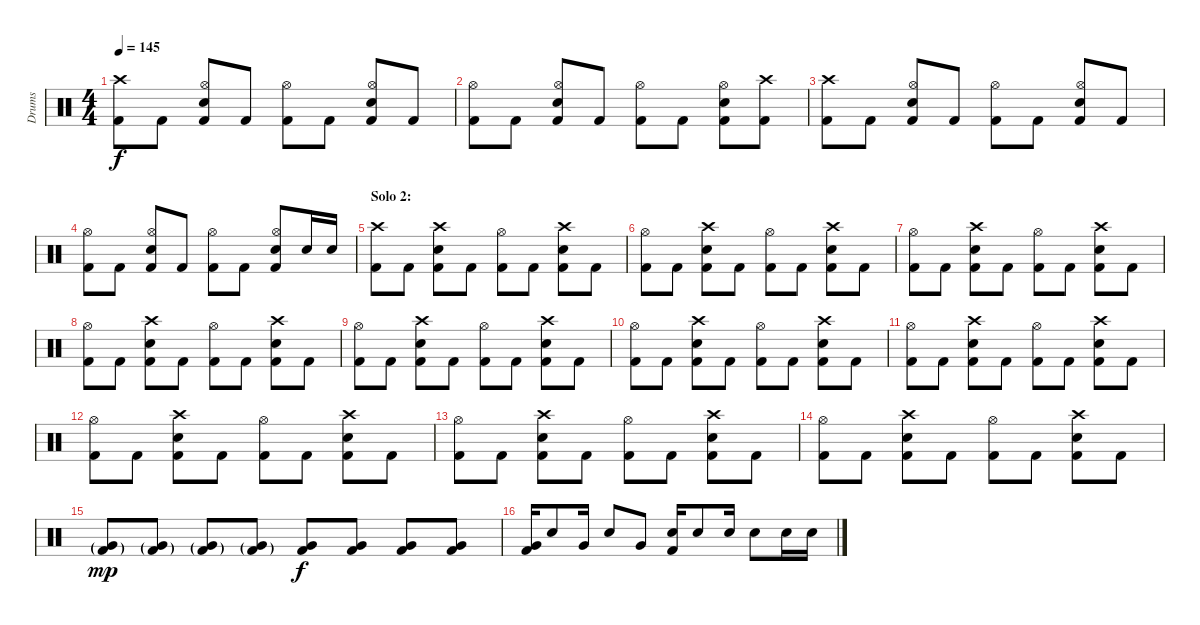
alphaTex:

\track ("Drums" "Drums") {instrument percussion}
\staff {score}
\articulation defaults
\ts (4 4)
\tempo 145
\clef neutral
\ks c
("Crash high (hit)" "Kick (hit) 2").8{dy f} "Kick (hit) 2".8 ("Hi-Hat (open)" "Electric Snare (hit)" "Kick (hit) 2").8 "Kick (hit) 2".8 ("Hi-Hat (open)" "Kick (hit) 2").8 "Kick (hit) 2".8 ("Hi-Hat (open)" "Electric Snare (hit)" "Kick (hit) 2").8 "Kick (hit) 2".8 |
("Hi-Hat (open)" "Kick (hit) 2").8 "Kick (hit) 2".8 ("Hi-Hat (open)" "Electric Snare (hit)" "Kick (hit) 2").8 "Kick (hit) 2".8 ("Hi-Hat (open)" "Kick (hit) 2").8 "Kick (hit) 2".8 ("Hi-Hat (open)" "Electric Snare (hit)" "Kick (hit) 2").8 ("Crash high (hit)" "Kick (hit) 2").8 |
("Crash high (hit)" "Kick (hit) 2").8 "Kick (hit) 2".8 ("Hi-Hat (open)" "Electric Snare (hit)" "Kick (hit) 2").8 "Kick (hit) 2".8 ("Hi-Hat (open)" "Kick (hit) 2").8 "Kick (hit) 2".8 ("Hi-Hat (open)" "Electric Snare (hit)" "Kick (hit) 2").8 "Kick (hit) 2".8 |
("Hi-Hat (open)" "Kick (hit) 2").8 "Kick (hit) 2".8 ("Hi-Hat (open)" "Electric Snare (hit)" "Kick (hit) 2").8 "Kick (hit) 2".8 ("Hi-Hat (open)" "Kick (hit) 2").8 "Kick (hit) 2".8 ("Hi-Hat (open)" "Electric Snare (hit)" "Kick (hit) 2").8 "Electric Snare (hit)".16 "Electric Snare (hit)".16 |
\section ("" "Solo 2:")
("Crash high (hit)" "Kick (hit) 2").8 "Kick (hit) 2".8 ("Crash high (hit)" "Electric Snare (hit)" "Kick (hit) 2").8 "Kick (hit) 2".8 ("Hi-Hat (open)" "Kick (hit) 2").8 "Kick (hit) 2".8 ("Crash high (hit)" "Electric Snare (hit)" "Kick (hit) 2").8 "Kick (hit) 2".8 |
("Hi-Hat (open)" "Kick (hit) 2").8 "Kick (hit) 2".8 ("Crash high (hit)" "Electric Snare (hit)" "Kick (hit) 2").8 "Kick (hit) 2".8 ("Hi-Hat (open)" "Kick (hit) 2").8 "Kick (hit) 2".8 ("Crash high (hit)" "Electric Snare (hit)" "Kick (hit) 2").8 "Kick (hit) 2".8 |
("Hi-Hat (open)" "Kick (hit) 2").8 "Kick (hit) 2".8 ("Crash high (hit)" "Electric Snare (hit)" "Kick (hit) 2").8 "Kick (hit) 2".8 ("Hi-Hat (open)" "Kick (hit) 2").8 "Kick (hit) 2".8 ("Crash high (hit)" "Electric Snare (hit)" "Kick (hit) 2").8 "Kick (hit) 2".8 |
("Hi-Hat (open)" "Kick (hit) 2").8 "Kick (hit) 2".8 ("Crash high (hit)" "Electric Snare (hit)" "Kick (hit) 2").8 "Kick (hit) 2".8 ("Hi-Hat (open)" "Kick (hit) 2").8 "Kick (hit) 2".8 ("Crash high (hit)" "Electric Snare (hit)" "Kick (hit) 2").8 "Kick (hit) 2".8 |
("Hi-Hat (open)" "Kick (hit) 2").8 "Kick (hit) 2".8 ("Crash high (hit)" "Electric Snare (hit)" "Kick (hit) 2").8 "Kick (hit) 2".8 ("Hi-Hat (open)" "Kick (hit) 2").8 "Kick (hit) 2".8 ("Crash high (hit)" "Electric Snare (hit)" "Kick (hit) 2").8 "Kick (hit) 2".8 |
("Hi-Hat (open)" "Kick (hit) 2").8 "Kick (hit) 2".8 ("Crash high (hit)" "Electric Snare (hit)" "Kick (hit) 2").8 "Kick (hit) 2".8 ("Hi-Hat (open)" "Kick (hit) 2").8 "Kick (hit) 2".8 ("Crash high (hit)" "Electric Snare (hit)" "Kick (hit) 2").8 "Kick (hit) 2".8 |
("Hi-Hat (open)" "Kick (hit) 2").8 "Kick (hit) 2".8 ("Crash high (hit)" "Electric Snare (hit)" "Kick (hit) 2").8 "Kick (hit) 2".8 ("Hi-Hat (open)" "Kick (hit) 2").8 "Kick (hit) 2".8 ("Crash high (hit)" "Electric Snare (hit)" "Kick (hit) 2").8 "Kick (hit) 2".8 |
("Hi-Hat (open)" "Kick (hit) 2").8 "Kick (hit) 2".8 ("Crash high (hit)" "Electric Snare (hit)" "Kick (hit) 2").8 "Kick (hit) 2".8 ("Hi-Hat (open)" "Kick (hit) 2").8 "Kick (hit) 2".8 ("Crash high (hit)" "Electric Snare (hit)" "Kick (hit) 2").8 "Kick (hit) 2".8 |
("Hi-Hat (open)" "Kick (hit) 2").8 "Kick (hit) 2".8 ("Crash high (hit)" "Electric Snare (hit)" "Kick (hit) 2").8 "Kick (hit) 2".8 ("Hi-Hat (open)" "Kick (hit) 2").8 "Kick (hit) 2".8 ("Crash high (hit)" "Electric Snare (hit)" "Kick (hit) 2").8 "Kick (hit) 2".8 |
("Hi-Hat (open)" "Kick (hit) 2").8 "Kick (hit) 2".8 ("Crash high (hit)" "Electric Snare (hit)" "Kick (hit) 2").8 "Kick (hit) 2".8 ("Hi-Hat (open)" "Kick (hit) 2").8 "Kick (hit) 2".8 ("Crash high (hit)" "Electric Snare (hit)" "Kick (hit) 2").8 "Kick (hit) 2".8 |
("Very Low Tom (hit)"{g} "Kick (hit) 2"{g}).8{dy mp} ("Very Low Tom (hit)"{g} "Kick (hit) 2"{g}).8 ("Very Low Tom (hit)"{g} "Kick (hit) 2"{g}).8 ("Very Low Tom (hit)"{g} "Kick (hit) 2"{g}).8 ("Very Low Tom (hit)" "Kick (hit) 2").8{dy f} ("Very Low Tom (hit)" "Kick (hit) 2").8 ("Very Low Tom (hit)" "Kick (hit) 2").8 ("Very Low Tom (hit)" "Kick (hit) 2").8 |
("Very Low Tom (hit)" "Kick (hit) 2").16 "Electric Snare (hit)".8 "Very Low Tom (hit)".16 "Electric Snare (hit)".8 "Very Low Tom (hit)".8 ("Electric Snare (hit)" "Kick (hit) 2").16 "Electric Snare (hit)".8 "Electric Snare (hit)".16 "Electric Snare (hit)".8 "Electric Snare (hit)".16 "Electric Snare (hit)".16
